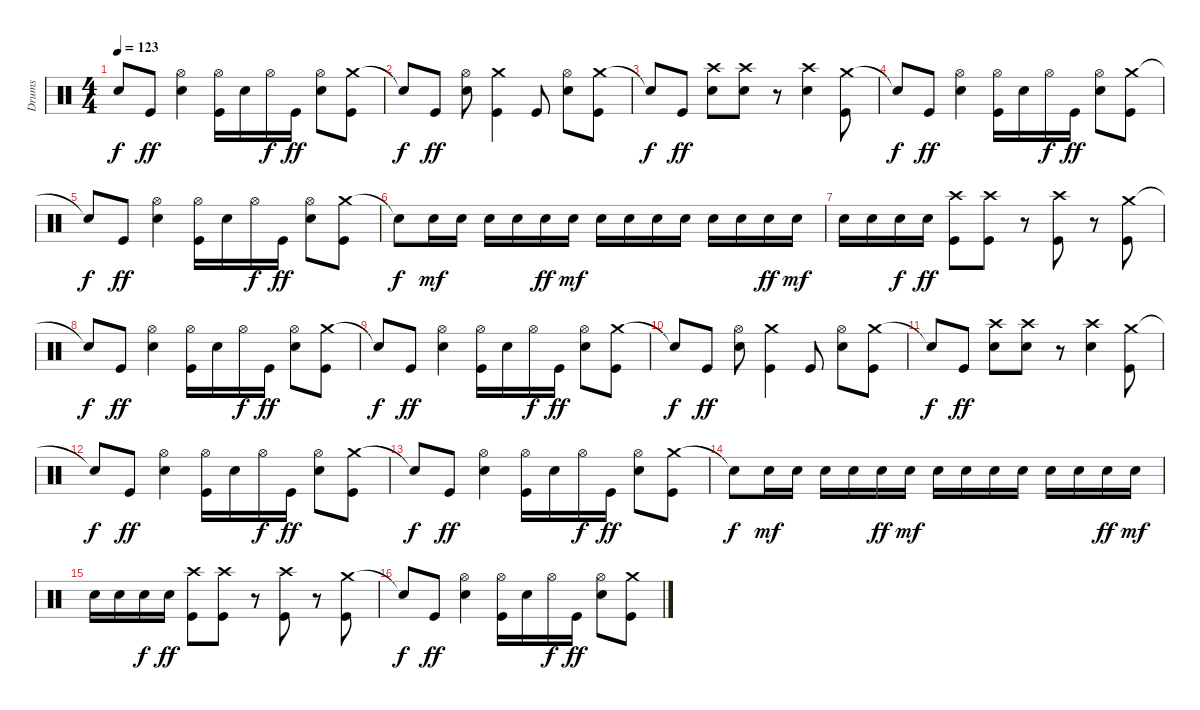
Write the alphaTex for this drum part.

\track ("Drums" "Drums") {instrument percussion}
\staff {score}
\articulation defaults
\ts (4 4)
\tempo 123
\clef neutral
\ks c "Snare (hit)"{t}.8{dy f} "Kick (hit)".8{dy ff}
("Hi-Hat (open)" "Electric Snare (hit)").4 ("Hi-Hat (open)" "Kick (hit)").16 "Electric Snare (hit)".16 "Hi-Hat (open)".16{dy f} "Kick (hit)".16{dy ff} ("Hi-Hat (open)" "Electric Snare (hit)").8 ("Crash medium (hit)" "Kick (hit)").8 |
"Snare (hit)"{t}.8{dy f} "Kick (hit)".8{dy ff} ("Hi-Hat (open)" "Electric Snare (hit)").8 ("Crash medium (hit)" "Kick (hit)").4 "Kick (hit)".8 ("Hi-Hat (open)" "Electric Snare (hit)").8 ("Crash medium (hit)" "Kick (hit)").8 |
"Snare (hit)"{t}.8{dy f} "Kick (hit)".8{dy ff} ("Crash high (hit)" "Electric Snare (hit)").8 ("Crash high (hit)" "Electric Snare (hit)").8 r.8 ("Crash high (hit)" "Electric Snare (hit)").4 ("Crash medium (hit)" "Kick (hit)").8 |
"Snare (hit)"{t}.8{dy f} "Kick (hit)".8{dy ff} ("Hi-Hat (open)" "Electric Snare (hit)").4 ("Hi-Hat (open)" "Kick (hit)").16 "Electric Snare (hit)".16 "Hi-Hat (open)".16{dy f} "Kick (hit)".16{dy ff} ("Hi-Hat (open)" "Electric Snare (hit)").8 ("Crash medium (hit)" "Kick (hit)").8 |
"Snare (hit)"{t}.8{dy f} "Kick (hit)".8{dy ff} ("Hi-Hat (open)" "Electric Snare (hit)").4 ("Hi-Hat (open)" "Kick (hit)").16 "Electric Snare (hit)".16 "Hi-Hat (open)".16{dy f} "Kick (hit)".16{dy ff} ("Hi-Hat (open)" "Electric Snare (hit)").8 ("Crash medium (hit)" "Kick (hit)").8 |
"Snare (hit)"{t}.8{dy f} "Electric Snare (hit)".16{dy mf} "Electric Snare (hit)".16 "Electric Snare (hit)".16 "Electric Snare (hit)".16 "Electric Snare (hit)".16{dy ff} "Electric Snare (hit)".16{dy mf} "Electric Snare (hit)".16 "Electric Snare (hit)".16 "Electric Snare (hit)".16 "Electric Snare (hit)".16 "Electric Snare (hit)".16 "Electric Snare (hit)".16 "Electric Snare (hit)".16{dy ff} "Electric Snare (hit)".16{dy mf} |
"Electric Snare (hit)".16 "Electric Snare (hit)".16 "Electric Snare (hit)".16{dy f} "Electric Snare (hit)".16{dy ff} ("Crash high (hit)" "Kick (hit)").8 ("Crash high (hit)" "Kick (hit)").8 r.8 ("Crash high (hit)" "Kick (hit)").8 r.8 ("Crash medium (hit)" "Kick (hit)").8 |
"Snare (hit)"{t}.8{dy f} "Kick (hit)".8{dy ff} ("Hi-Hat (open)" "Electric Snare (hit)").4 ("Hi-Hat (open)" "Kick (hit)").16 "Electric Snare (hit)".16 "Hi-Hat (open)".16{dy f} "Kick (hit)".16{dy ff} ("Hi-Hat (open)" "Electric Snare (hit)").8 ("Crash medium (hit)" "Kick (hit)").8 |
"Snare (hit)"{t}.8{dy f} "Kick (hit)".8{dy ff} ("Hi-Hat (open)" "Electric Snare (hit)").4 ("Hi-Hat (open)" "Kick (hit)").16 "Electric Snare (hit)".16 "Hi-Hat (open)".16{dy f} "Kick (hit)".16{dy ff} ("Hi-Hat (open)" "Electric Snare (hit)").8 ("Crash medium (hit)" "Kick (hit)").8 |
"Snare (hit)"{t}.8{dy f} "Kick (hit)".8{dy ff} ("Hi-Hat (open)" "Electric Snare (hit)").8 ("Crash medium (hit)" "Kick (hit)").4 "Kick (hit)".8 ("Hi-Hat (open)" "Electric Snare (hit)").8 ("Crash medium (hit)" "Kick (hit)").8 |
"Snare (hit)"{t}.8{dy f} "Kick (hit)".8{dy ff} ("Crash high (hit)" "Electric Snare (hit)").8 ("Crash high (hit)" "Electric Snare (hit)").8 r.8 ("Crash high (hit)" "Electric Snare (hit)").4 ("Crash medium (hit)" "Kick (hit)").8 |
"Snare (hit)"{t}.8{dy f} "Kick (hit)".8{dy ff} ("Hi-Hat (open)" "Electric Snare (hit)").4 ("Hi-Hat (open)" "Kick (hit)").16 "Electric Snare (hit)".16 "Hi-Hat (open)".16{dy f} "Kick (hit)".16{dy ff} ("Hi-Hat (open)" "Electric Snare (hit)").8 ("Crash medium (hit)" "Kick (hit)").8 |
"Snare (hit)"{t}.8{dy f} "Kick (hit)".8{dy ff} ("Hi-Hat (open)" "Electric Snare (hit)").4 ("Hi-Hat (open)" "Kick (hit)").16 "Electric Snare (hit)".16 "Hi-Hat (open)".16{dy f} "Kick (hit)".16{dy ff} ("Hi-Hat (open)" "Electric Snare (hit)").8 ("Crash medium (hit)" "Kick (hit)").8 |
"Snare (hit)"{t}.8{dy f} "Electric Snare (hit)".16{dy mf} "Electric Snare (hit)".16 "Electric Snare (hit)".16 "Electric Snare (hit)".16 "Electric Snare (hit)".16{dy ff} "Electric Snare (hit)".16{dy mf} "Electric Snare (hit)".16 "Electric Snare (hit)".16 "Electric Snare (hit)".16 "Electric Snare (hit)".16 "Electric Snare (hit)".16 "Electric Snare (hit)".16 "Electric Snare (hit)".16{dy ff} "Electric Snare (hit)".16{dy mf} |
"Electric Snare (hit)".16 "Electric Snare (hit)".16 "Electric Snare (hit)".16{dy f} "Electric Snare (hit)".16{dy ff} ("Crash high (hit)" "Kick (hit)").8 ("Crash high (hit)" "Kick (hit)").8 r.8 ("Crash high (hit)" "Kick (hit)").8 r.8 ("Crash medium (hit)" "Kick (hit)").8 |
"Snare (hit)"{t}.8{dy f} "Kick (hit)".8{dy ff} ("Hi-Hat (open)" "Electric Snare (hit)").4 ("Hi-Hat (open)" "Kick (hit)").16 "Electric Snare (hit)".16 "Hi-Hat (open)".16{dy f} "Kick (hit)".16{dy ff} ("Hi-Hat (open)" "Electric Snare (hit)").8 ("Crash medium (hit)" "Kick (hit)").8
